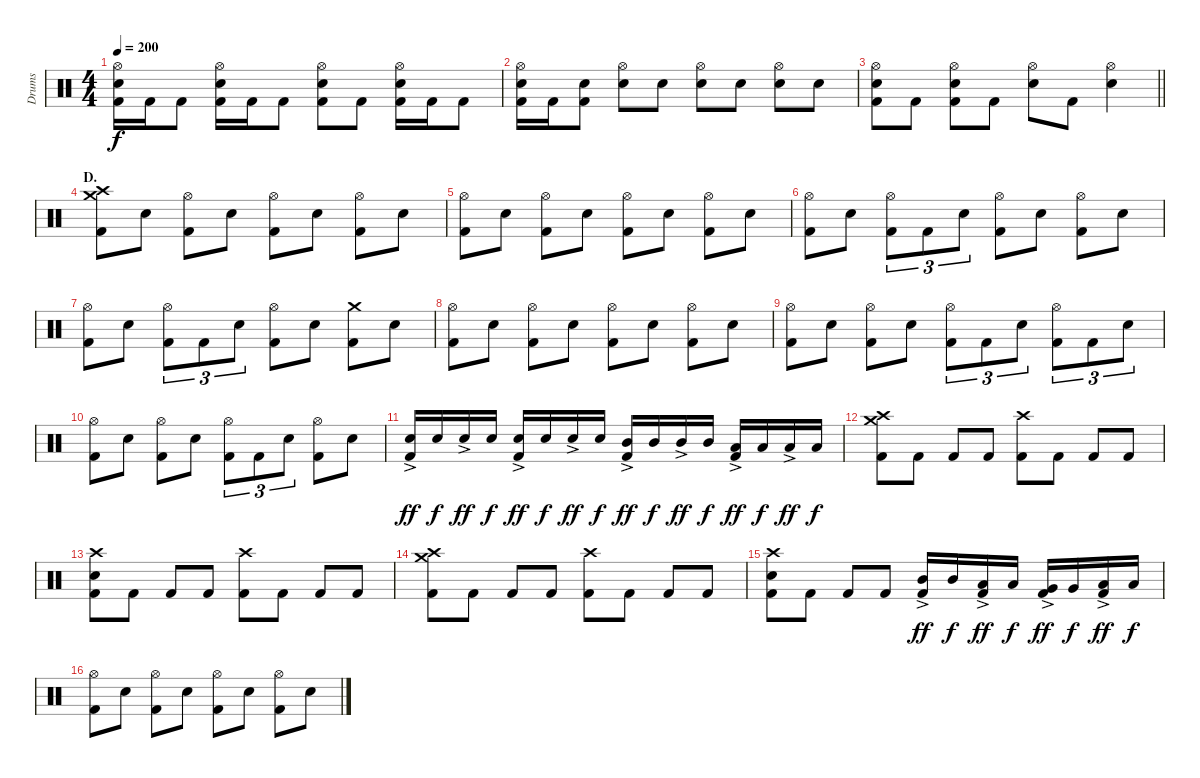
\track ("Drums" "Drums") {instrument percussion}
\staff {score}
\articulation defaults
\ts (4 4)
\tempo 200
\clef neutral
\ks c
("Hi-Hat (open)" "Electric Snare (hit)" "Kick (hit) 2").16{dy f} "Kick (hit) 2".16 "Kick (hit) 2".8 ("Hi-Hat (open)" "Electric Snare (hit)" "Kick (hit) 2").16 "Kick (hit) 2".16 "Kick (hit) 2".8 ("Hi-Hat (open)" "Electric Snare (hit)" "Kick (hit) 2").8 "Kick (hit) 2".8 ("Hi-Hat (open)" "Electric Snare (hit)" "Kick (hit) 2").16 "Kick (hit) 2".16 "Kick (hit) 2".8 |
("Hi-Hat (open)" "Electric Snare (hit)" "Kick (hit) 2").16 "Kick (hit) 2".16 ("Electric Snare (hit)" "Kick (hit) 2").8 ("Hi-Hat (open)" "Electric Snare (hit)").8 "Electric Snare (hit)".8 ("Hi-Hat (open)" "Electric Snare (hit)").8 "Electric Snare (hit)".8 ("Hi-Hat (open)" "Electric Snare (hit)").8 "Electric Snare (hit)".8 |
\barLineRight lightlight
("Hi-Hat (open)" "Electric Snare (hit)" "Kick (hit) 2").8 "Kick (hit) 2".8 ("Hi-Hat (open)" "Electric Snare (hit)" "Kick (hit) 2").8 "Kick (hit) 2".8 ("Hi-Hat (open)" "Electric Snare (hit)").8 "Kick (hit) 2".8 ("Hi-Hat (open)" "Electric Snare (hit)").4 |
\section ("" "D.")
("Crash medium (hit)" "Crash high (hit)" "Kick (hit) 2").8 "Electric Snare (hit)".8 ("Hi-Hat (open)" "Kick (hit) 2").8 "Electric Snare (hit)".8 ("Hi-Hat (open)" "Kick (hit) 2").8 "Electric Snare (hit)".8 ("Hi-Hat (open)" "Kick (hit) 2").8 "Electric Snare (hit)".8 |
("Hi-Hat (open)" "Kick (hit) 2").8 "Electric Snare (hit)".8 ("Hi-Hat (open)" "Kick (hit) 2").8 "Electric Snare (hit)".8 ("Hi-Hat (open)" "Kick (hit) 2").8 "Electric Snare (hit)".8 ("Hi-Hat (open)" "Kick (hit) 2").8 "Electric Snare (hit)".8 |
("Hi-Hat (open)" "Kick (hit) 2").8 "Electric Snare (hit)".8 ("Hi-Hat (open)" "Kick (hit) 2").8{tu (3 2)} "Kick (hit) 2".8{tu (3 2)} "Electric Snare (hit)".8{tu (3 2)} ("Hi-Hat (open)" "Kick (hit) 2").8 "Electric Snare (hit)".8 ("Hi-Hat (open)" "Kick (hit) 2").8 "Electric Snare (hit)".8 |
("Hi-Hat (open)" "Kick (hit) 2").8 "Electric Snare (hit)".8 ("Hi-Hat (open)" "Kick (hit) 2").8{tu (3 2)} "Kick (hit) 2".8{tu (3 2)} "Electric Snare (hit)".8{tu (3 2)} ("Hi-Hat (open)" "Kick (hit) 2").8 "Electric Snare (hit)".8 ("Crash medium (hit)" "Kick (hit) 2").8 "Electric Snare (hit)".8 |
("Hi-Hat (open)" "Kick (hit) 2").8 "Electric Snare (hit)".8 ("Hi-Hat (open)" "Kick (hit) 2").8 "Electric Snare (hit)".8 ("Hi-Hat (open)" "Kick (hit) 2").8 "Electric Snare (hit)".8 ("Hi-Hat (open)" "Kick (hit) 2").8 "Electric Snare (hit)".8 |
("Hi-Hat (open)" "Kick (hit) 2").8 "Electric Snare (hit)".8 ("Hi-Hat (open)" "Kick (hit) 2").8 "Electric Snare (hit)".8 ("Hi-Hat (open)" "Kick (hit) 2").8{tu (3 2)} "Kick (hit) 2".8{tu (3 2)} "Electric Snare (hit)".8{tu (3 2)} ("Hi-Hat (open)" "Kick (hit) 2").8{tu (3 2)} "Kick (hit) 2".8{tu (3 2)} "Electric Snare (hit)".8{tu (3 2)} |
("Hi-Hat (open)" "Kick (hit) 2").8 "Electric Snare (hit)".8 ("Hi-Hat (open)" "Kick (hit) 2").8 "Electric Snare (hit)".8 ("Hi-Hat (open)" "Kick (hit) 2").8{tu (3 2)} "Kick (hit) 2".8{tu (3 2)} "Electric Snare (hit)".8{tu (3 2)} ("Hi-Hat (open)" "Kick (hit) 2").8 "Electric Snare (hit)".8 |
("Electric Snare (hit)"{ac} "Kick (hit) 2").16{dy ff} "Electric Snare (hit)".16{dy f} "Electric Snare (hit)"{ac}.16{dy ff} "Electric Snare (hit)".16{dy f} ("Electric Snare (hit)"{ac} "Kick (hit) 2").16{dy ff} "Electric Snare (hit)".16{dy f} "Electric Snare (hit)"{ac}.16{dy ff} "Electric Snare (hit)".16{dy f} ("Mid Tom (hit)"{ac} "Kick (hit) 2").16{dy ff} "Mid Tom (hit)".16{dy f} "Mid Tom (hit)"{ac}.16{dy ff} "Mid Tom (hit)".16{dy f} ("Low Tom (hit)"{ac} "Kick (hit) 2").16{dy ff} "Low Tom (hit)".16{dy f} "Low Tom (hit)"{ac}.16{dy ff} "Low Tom (hit)".16{dy f} |
("Crash medium (hit)" "Crash high (hit)" "Kick (hit) 2").8 "Kick (hit) 2".8 "Kick (hit) 2".8 "Kick (hit) 2".8 ("Crash high (hit)" "Kick (hit) 2").8 "Kick (hit) 2".8 "Kick (hit) 2".8 "Kick (hit) 2".8 |
("Crash high (hit)" "Electric Snare (hit)" "Kick (hit) 2").8 "Kick (hit) 2".8 "Kick (hit) 2".8 "Kick (hit) 2".8 ("Crash high (hit)" "Kick (hit) 2").8 "Kick (hit) 2".8 "Kick (hit) 2".8 "Kick (hit) 2".8 |
("Crash medium (hit)" "Crash high (hit)" "Kick (hit) 2").8 "Kick (hit) 2".8 "Kick (hit) 2".8 "Kick (hit) 2".8 ("Crash high (hit)" "Kick (hit) 2").8 "Kick (hit) 2".8 "Kick (hit) 2".8 "Kick (hit) 2".8 |
("Crash high (hit)" "Electric Snare (hit)" "Kick (hit) 2").8 "Kick (hit) 2".8 "Kick (hit) 2".8 "Kick (hit) 2".8 ("Mid Tom (hit)"{ac} "Kick (hit) 2").16{dy ff} "Mid Tom (hit)".16{dy f} ("Low Tom (hit)"{ac} "Kick (hit) 2").16{dy ff} "Low Tom (hit)".16{dy f} ("Very Low Tom (hit)"{ac} "Kick (hit) 2").16{dy ff} "Very Low Tom (hit)".16{dy f} ("Low Floor Tom (hit)"{ac} "Kick (hit) 2").16{dy ff} "Low Floor Tom (hit)".16{dy f} |
("Hi-Hat (open)" "Kick (hit) 2").8 "Electric Snare (hit)".8 ("Hi-Hat (open)" "Kick (hit) 2").8 "Electric Snare (hit)".8 ("Hi-Hat (open)" "Kick (hit) 2").8 "Electric Snare (hit)".8 ("Hi-Hat (open)" "Kick (hit) 2").8 "Electric Snare (hit)".8
